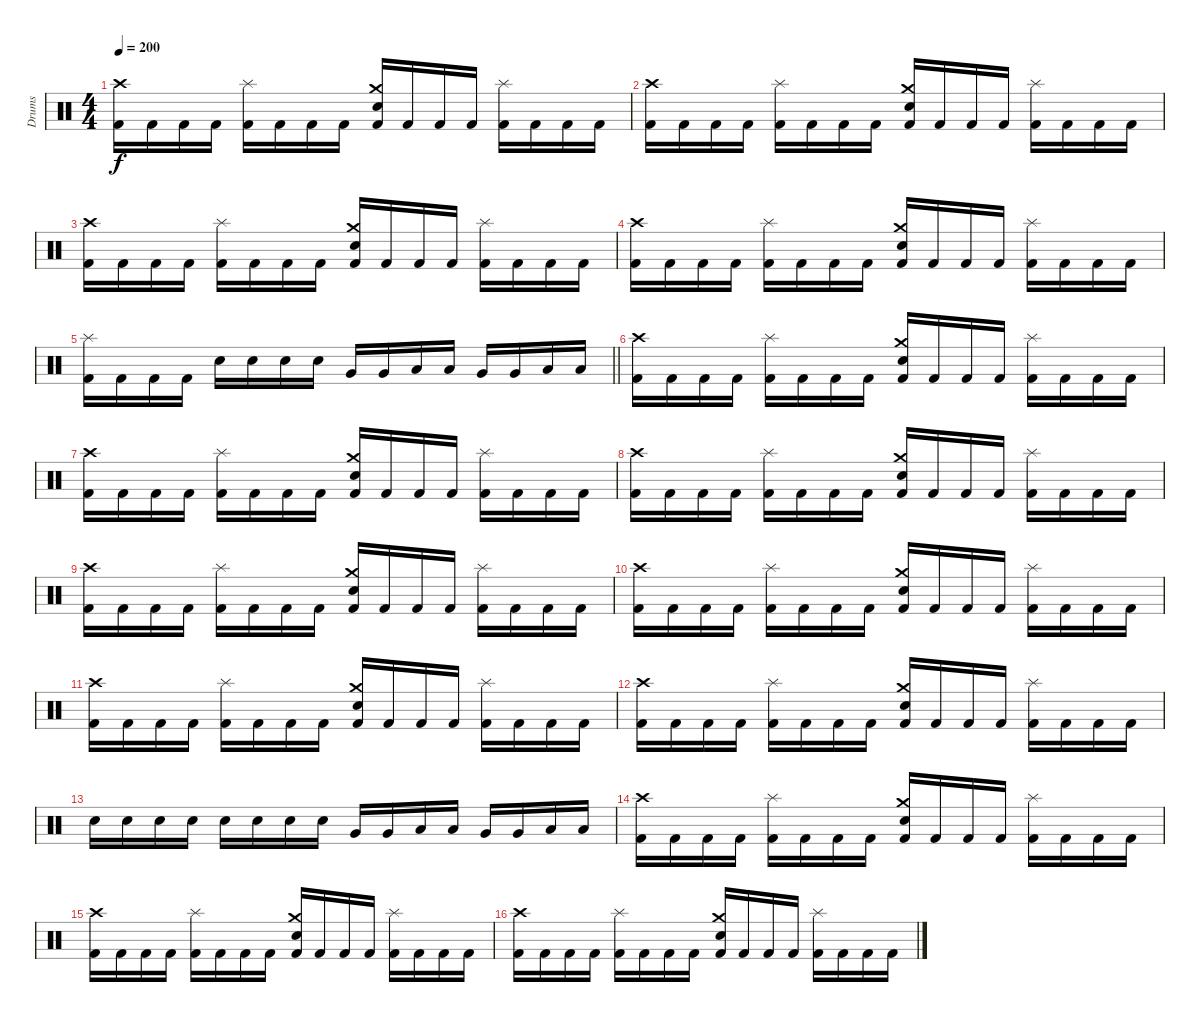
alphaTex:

\track ("Drums" "Drums") {instrument percussion}
\staff {score}
\articulation defaults
\ts (4 4)
\tempo 200
\clef neutral
\ks c
("Crash high (hit)" "Kick (hit) 2").16{dy f} "Kick (hit) 2".16 "Kick (hit) 2".16 "Kick (hit) 2".16 ("Splash (hit)" "Kick (hit) 2").16 "Kick (hit) 2".16 "Kick (hit) 2".16 "Kick (hit) 2".16 ("Crash medium (hit)" "Electric Snare (hit)" "Kick (hit) 2").16 "Kick (hit) 2".16 "Kick (hit) 2".16 "Kick (hit) 2".16 ("Splash (hit)" "Kick (hit) 2").16 "Kick (hit) 2".16 "Kick (hit) 2".16 "Kick (hit) 2".16 |
("Crash high (hit)" "Kick (hit) 2").16 "Kick (hit) 2".16 "Kick (hit) 2".16 "Kick (hit) 2".16 ("Splash (hit)" "Kick (hit) 2").16 "Kick (hit) 2".16 "Kick (hit) 2".16 "Kick (hit) 2".16 ("Crash medium (hit)" "Electric Snare (hit)" "Kick (hit) 2").16 "Kick (hit) 2".16 "Kick (hit) 2".16 "Kick (hit) 2".16 ("Splash (hit)" "Kick (hit) 2").16 "Kick (hit) 2".16 "Kick (hit) 2".16 "Kick (hit) 2".16 |
("Crash high (hit)" "Kick (hit) 2").16 "Kick (hit) 2".16 "Kick (hit) 2".16 "Kick (hit) 2".16 ("Splash (hit)" "Kick (hit) 2").16 "Kick (hit) 2".16 "Kick (hit) 2".16 "Kick (hit) 2".16 ("Crash medium (hit)" "Electric Snare (hit)" "Kick (hit) 2").16 "Kick (hit) 2".16 "Kick (hit) 2".16 "Kick (hit) 2".16 ("Splash (hit)" "Kick (hit) 2").16 "Kick (hit) 2".16 "Kick (hit) 2".16 "Kick (hit) 2".16 |
("Crash high (hit)" "Kick (hit) 2").16 "Kick (hit) 2".16 "Kick (hit) 2".16 "Kick (hit) 2".16 ("Splash (hit)" "Kick (hit) 2").16 "Kick (hit) 2".16 "Kick (hit) 2".16 "Kick (hit) 2".16 ("Crash medium (hit)" "Electric Snare (hit)" "Kick (hit) 2").16 "Kick (hit) 2".16 "Kick (hit) 2".16 "Kick (hit) 2".16 ("Splash (hit)" "Kick (hit) 2").16 "Kick (hit) 2".16 "Kick (hit) 2".16 "Kick (hit) 2".16 |
\barLineRight lightlight
("Splash (hit)" "Kick (hit) 2").16 "Kick (hit) 2".16 "Kick (hit) 2".16 "Kick (hit) 2".16 "Electric Snare (hit)".16 "Electric Snare (hit)".16 "Electric Snare (hit)".16 "Electric Snare (hit)".16 "Very Low Tom (hit)".16 "Very Low Tom (hit)".16 "Low Tom (hit)".16 "Low Tom (hit)".16 "Very Low Tom (hit)".16 "Very Low Tom (hit)".16 "Low Floor Tom (hit)".16 "Low Floor Tom (hit)".16 |
("Crash high (hit)" "Kick (hit) 2").16 "Kick (hit) 2".16 "Kick (hit) 2".16 "Kick (hit) 2".16 ("Splash (hit)" "Kick (hit) 2").16 "Kick (hit) 2".16 "Kick (hit) 2".16 "Kick (hit) 2".16 ("Crash medium (hit)" "Electric Snare (hit)" "Kick (hit) 2").16 "Kick (hit) 2".16 "Kick (hit) 2".16 "Kick (hit) 2".16 ("Splash (hit)" "Kick (hit) 2").16 "Kick (hit) 2".16 "Kick (hit) 2".16 "Kick (hit) 2".16 |
("Crash high (hit)" "Kick (hit) 2").16 "Kick (hit) 2".16 "Kick (hit) 2".16 "Kick (hit) 2".16 ("Splash (hit)" "Kick (hit) 2").16 "Kick (hit) 2".16 "Kick (hit) 2".16 "Kick (hit) 2".16 ("Crash medium (hit)" "Electric Snare (hit)" "Kick (hit) 2").16 "Kick (hit) 2".16 "Kick (hit) 2".16 "Kick (hit) 2".16 ("Splash (hit)" "Kick (hit) 2").16 "Kick (hit) 2".16 "Kick (hit) 2".16 "Kick (hit) 2".16 |
("Crash high (hit)" "Kick (hit) 2").16 "Kick (hit) 2".16 "Kick (hit) 2".16 "Kick (hit) 2".16 ("Splash (hit)" "Kick (hit) 2").16 "Kick (hit) 2".16 "Kick (hit) 2".16 "Kick (hit) 2".16 ("Crash medium (hit)" "Electric Snare (hit)" "Kick (hit) 2").16 "Kick (hit) 2".16 "Kick (hit) 2".16 "Kick (hit) 2".16 ("Splash (hit)" "Kick (hit) 2").16 "Kick (hit) 2".16 "Kick (hit) 2".16 "Kick (hit) 2".16 |
("Crash high (hit)" "Kick (hit) 2").16 "Kick (hit) 2".16 "Kick (hit) 2".16 "Kick (hit) 2".16 ("Splash (hit)" "Kick (hit) 2").16 "Kick (hit) 2".16 "Kick (hit) 2".16 "Kick (hit) 2".16 ("Crash medium (hit)" "Electric Snare (hit)" "Kick (hit) 2").16 "Kick (hit) 2".16 "Kick (hit) 2".16 "Kick (hit) 2".16 ("Splash (hit)" "Kick (hit) 2").16 "Kick (hit) 2".16 "Kick (hit) 2".16 "Kick (hit) 2".16 |
("Crash high (hit)" "Kick (hit) 2").16 "Kick (hit) 2".16 "Kick (hit) 2".16 "Kick (hit) 2".16 ("Splash (hit)" "Kick (hit) 2").16 "Kick (hit) 2".16 "Kick (hit) 2".16 "Kick (hit) 2".16 ("Crash medium (hit)" "Electric Snare (hit)" "Kick (hit) 2").16 "Kick (hit) 2".16 "Kick (hit) 2".16 "Kick (hit) 2".16 ("Splash (hit)" "Kick (hit) 2").16 "Kick (hit) 2".16 "Kick (hit) 2".16 "Kick (hit) 2".16 |
("Crash high (hit)" "Kick (hit) 2").16 "Kick (hit) 2".16 "Kick (hit) 2".16 "Kick (hit) 2".16 ("Splash (hit)" "Kick (hit) 2").16 "Kick (hit) 2".16 "Kick (hit) 2".16 "Kick (hit) 2".16 ("Crash medium (hit)" "Electric Snare (hit)" "Kick (hit) 2").16 "Kick (hit) 2".16 "Kick (hit) 2".16 "Kick (hit) 2".16 ("Splash (hit)" "Kick (hit) 2").16 "Kick (hit) 2".16 "Kick (hit) 2".16 "Kick (hit) 2".16 |
("Crash high (hit)" "Kick (hit) 2").16 "Kick (hit) 2".16 "Kick (hit) 2".16 "Kick (hit) 2".16 ("Splash (hit)" "Kick (hit) 2").16 "Kick (hit) 2".16 "Kick (hit) 2".16 "Kick (hit) 2".16 ("Crash medium (hit)" "Electric Snare (hit)" "Kick (hit) 2").16 "Kick (hit) 2".16 "Kick (hit) 2".16 "Kick (hit) 2".16 ("Splash (hit)" "Kick (hit) 2").16 "Kick (hit) 2".16 "Kick (hit) 2".16 "Kick (hit) 2".16 |
"Electric Snare (hit)".16 "Electric Snare (hit)".16 "Electric Snare (hit)".16 "Electric Snare (hit)".16 "Electric Snare (hit)".16 "Electric Snare (hit)".16 "Electric Snare (hit)".16 "Electric Snare (hit)".16 "Very Low Tom (hit)".16 "Very Low Tom (hit)".16 "Low Tom (hit)".16 "Low Tom (hit)".16 "Very Low Tom (hit)".16 "Very Low Tom (hit)".16 "Low Floor Tom (hit)".16 "Low Floor Tom (hit)".16 |
("Crash high (hit)" "Kick (hit) 2").16 "Kick (hit) 2".16 "Kick (hit) 2".16 "Kick (hit) 2".16 ("Splash (hit)" "Kick (hit) 2").16 "Kick (hit) 2".16 "Kick (hit) 2".16 "Kick (hit) 2".16 ("Crash medium (hit)" "Electric Snare (hit)" "Kick (hit) 2").16 "Kick (hit) 2".16 "Kick (hit) 2".16 "Kick (hit) 2".16 ("Splash (hit)" "Kick (hit) 2").16 "Kick (hit) 2".16 "Kick (hit) 2".16 "Kick (hit) 2".16 |
("Crash high (hit)" "Kick (hit) 2").16 "Kick (hit) 2".16 "Kick (hit) 2".16 "Kick (hit) 2".16 ("Splash (hit)" "Kick (hit) 2").16 "Kick (hit) 2".16 "Kick (hit) 2".16 "Kick (hit) 2".16 ("Crash medium (hit)" "Electric Snare (hit)" "Kick (hit) 2").16 "Kick (hit) 2".16 "Kick (hit) 2".16 "Kick (hit) 2".16 ("Splash (hit)" "Kick (hit) 2").16 "Kick (hit) 2".16 "Kick (hit) 2".16 "Kick (hit) 2".16 |
("Crash high (hit)" "Kick (hit) 2").16 "Kick (hit) 2".16 "Kick (hit) 2".16 "Kick (hit) 2".16 ("Splash (hit)" "Kick (hit) 2").16 "Kick (hit) 2".16 "Kick (hit) 2".16 "Kick (hit) 2".16 ("Crash medium (hit)" "Electric Snare (hit)" "Kick (hit) 2").16 "Kick (hit) 2".16 "Kick (hit) 2".16 "Kick (hit) 2".16 ("Splash (hit)" "Kick (hit) 2").16 "Kick (hit) 2".16 "Kick (hit) 2".16 "Kick (hit) 2".16
